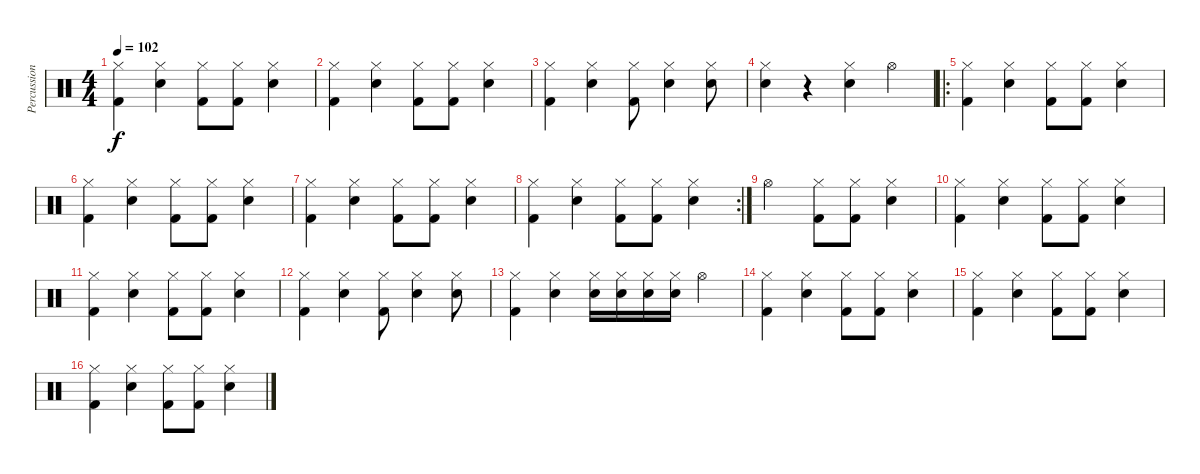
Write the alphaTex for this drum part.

\track ("Percussion" "Percussion") {instrument percussion}
\staff {score}
\articulation defaults
\ts (4 4)
\tempo 102
\clef neutral
\ks c
("Hi-Hat (closed)" "Kick (hit) 2").4{dy f} ("Hi-Hat (closed)" "Snare (hit) 2").4 ("Hi-Hat (closed)" "Kick (hit) 2").8 ("Hi-Hat (closed)" "Kick (hit) 2").8 ("Hi-Hat (closed)" "Snare (hit) 2").4 |
("Hi-Hat (closed)" "Kick (hit) 2").4 ("Hi-Hat (closed)" "Snare (hit) 2").4 ("Hi-Hat (closed)" "Kick (hit) 2").8 ("Hi-Hat (closed)" "Kick (hit) 2").8 ("Hi-Hat (closed)" "Snare (hit) 2").4 |
("Hi-Hat (closed)" "Kick (hit) 2").4 ("Hi-Hat (closed)" "Snare (hit) 2").4 ("Hi-Hat (closed)" "Kick (hit) 2").8 ("Hi-Hat (closed)" "Snare (hit) 2").4 ("Hi-Hat (closed)" "Snare (hit) 2").8 |
("Hi-Hat (closed)" "Snare (hit) 2").4 r.4 ("Hi-Hat (closed)" "Snare (hit) 2").4 "Hi-Hat (open)".4 |
\ro
("Hi-Hat (closed)" "Kick (hit) 2").4 ("Hi-Hat (closed)" "Snare (hit) 2").4 ("Hi-Hat (closed)" "Kick (hit) 2").8 ("Hi-Hat (closed)" "Kick (hit) 2").8 ("Hi-Hat (closed)" "Snare (hit) 2").4 |
("Hi-Hat (closed)" "Kick (hit) 2").4 ("Hi-Hat (closed)" "Snare (hit) 2").4 ("Hi-Hat (closed)" "Kick (hit) 2").8 ("Hi-Hat (closed)" "Kick (hit) 2").8 ("Hi-Hat (closed)" "Snare (hit) 2").4 |
("Hi-Hat (closed)" "Kick (hit) 2").4 ("Hi-Hat (closed)" "Snare (hit) 2").4 ("Hi-Hat (closed)" "Kick (hit) 2").8 ("Hi-Hat (closed)" "Kick (hit) 2").8 ("Hi-Hat (closed)" "Snare (hit) 2").4 |
\rc 2
("Hi-Hat (closed)" "Kick (hit) 2").4 ("Hi-Hat (closed)" "Snare (hit) 2").4 ("Hi-Hat (closed)" "Kick (hit) 2").8 ("Hi-Hat (closed)" "Kick (hit) 2").8 ("Hi-Hat (closed)" "Snare (hit) 2").4 |
"Hi-Hat (open)".2 ("Hi-Hat (closed)" "Kick (hit) 2").8 ("Hi-Hat (closed)" "Kick (hit) 2").8 ("Hi-Hat (closed)" "Snare (hit) 2").4 |
("Hi-Hat (closed)" "Kick (hit) 2").4 ("Hi-Hat (closed)" "Snare (hit) 2").4 ("Hi-Hat (closed)" "Kick (hit) 2").8 ("Hi-Hat (closed)" "Kick (hit) 2").8 ("Hi-Hat (closed)" "Snare (hit) 2").4 |
("Hi-Hat (closed)" "Kick (hit) 2").4 ("Hi-Hat (closed)" "Snare (hit) 2").4 ("Hi-Hat (closed)" "Kick (hit) 2").8 ("Hi-Hat (closed)" "Kick (hit) 2").8 ("Hi-Hat (closed)" "Snare (hit) 2").4 |
("Hi-Hat (closed)" "Kick (hit) 2").4 ("Hi-Hat (closed)" "Snare (hit) 2").4 ("Hi-Hat (closed)" "Kick (hit) 2").8 ("Hi-Hat (closed)" "Snare (hit) 2").4 ("Hi-Hat (closed)" "Snare (hit) 2").8 |
("Hi-Hat (closed)" "Kick (hit) 2").4 ("Hi-Hat (closed)" "Snare (hit) 2").4 ("Hi-Hat (closed)" "Snare (hit) 2").16 ("Hi-Hat (closed)" "Snare (hit) 2").16 ("Hi-Hat (closed)" "Snare (hit) 2").16 ("Hi-Hat (closed)" "Snare (hit) 2").16 "Hi-Hat (open)".4 |
("Hi-Hat (closed)" "Kick (hit) 2").4 ("Hi-Hat (closed)" "Snare (hit) 2").4 ("Hi-Hat (closed)" "Kick (hit) 2").8 ("Hi-Hat (closed)" "Kick (hit) 2").8 ("Hi-Hat (closed)" "Snare (hit) 2").4 |
("Hi-Hat (closed)" "Kick (hit) 2").4 ("Hi-Hat (closed)" "Snare (hit) 2").4 ("Hi-Hat (closed)" "Kick (hit) 2").8 ("Hi-Hat (closed)" "Kick (hit) 2").8 ("Hi-Hat (closed)" "Snare (hit) 2").4 |
("Hi-Hat (closed)" "Kick (hit) 2").4 ("Hi-Hat (closed)" "Snare (hit) 2").4 ("Hi-Hat (closed)" "Kick (hit) 2").8 ("Hi-Hat (closed)" "Kick (hit) 2").8 ("Hi-Hat (closed)" "Snare (hit) 2").4
